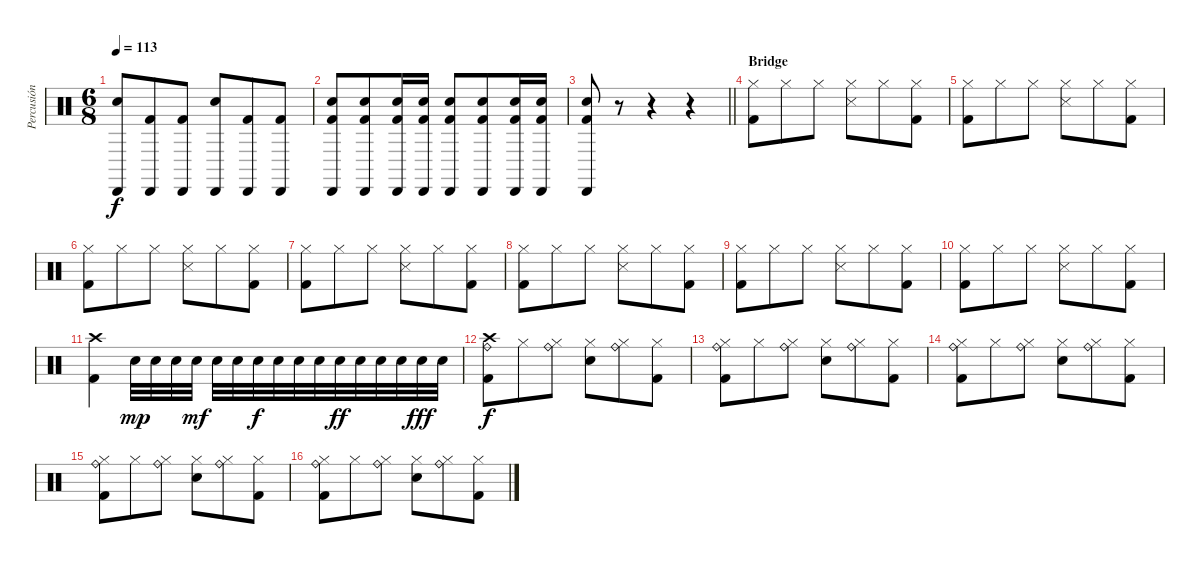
\track ("Percusión" "Percusión") {instrument percussion}
\staff {score}
\articulation defaults
\ts (6 8)
\tempo 113
\clef neutral
\ks c
("Cabasa (hit)" "Electric Snare (hit)").8{dy f} ("Cabasa (hit)" "Kick (hit) 2").8 ("Cabasa (hit)" "Kick (hit) 2").8 ("Cabasa (hit)" "Electric Snare (hit)").8 ("Cabasa (hit)" "Kick (hit) 2").8 ("Cabasa (hit)" "Kick (hit) 2").8 |
("Cabasa (hit)" "Electric Snare (hit)" "Kick (hit) 2").8 ("Cabasa (hit)" "Electric Snare (hit)" "Kick (hit) 2").8 ("Cabasa (hit)" "Electric Snare (hit)" "Kick (hit) 2").16 ("Cabasa (hit)" "Electric Snare (hit)" "Kick (hit) 2").16 ("Cabasa (hit)" "Electric Snare (hit)" "Kick (hit) 2").8 ("Cabasa (hit)" "Electric Snare (hit)" "Kick (hit) 2").8 ("Cabasa (hit)" "Electric Snare (hit)" "Kick (hit) 2").16 ("Cabasa (hit)" "Electric Snare (hit)" "Kick (hit) 2").16 |
\barLineRight lightlight
("Cabasa (hit)" "Electric Snare (hit)" "Kick (hit) 2").8 r.8 r.4 r.4 |
\section ("" "Bridge")
("Hi-Hat (closed)" "Kick (hit) 2").8 "Hi-Hat (closed)".8 "Hi-Hat (closed)".8 ("Hi-Hat (closed)" "Snare (side stick) 3").8 "Hi-Hat (closed)".8 ("Hi-Hat (closed)" "Kick (hit) 2").8 |
("Hi-Hat (closed)" "Kick (hit) 2").8 "Hi-Hat (closed)".8 "Hi-Hat (closed)".8 ("Hi-Hat (closed)" "Snare (side stick) 3").8 "Hi-Hat (closed)".8 ("Hi-Hat (closed)" "Kick (hit) 2").8 |
("Hi-Hat (closed)" "Kick (hit) 2").8 "Hi-Hat (closed)".8 "Hi-Hat (closed)".8 ("Hi-Hat (closed)" "Snare (side stick) 3").8 "Hi-Hat (closed)".8 ("Hi-Hat (closed)" "Kick (hit) 2").8 |
("Hi-Hat (closed)" "Kick (hit) 2").8 "Hi-Hat (closed)".8 "Hi-Hat (closed)".8 ("Hi-Hat (closed)" "Snare (side stick) 3").8 "Hi-Hat (closed)".8 ("Hi-Hat (closed)" "Kick (hit) 2").8 |
("Hi-Hat (closed)" "Kick (hit) 2").8 "Hi-Hat (closed)".8 "Hi-Hat (closed)".8 ("Hi-Hat (closed)" "Snare (side stick) 3").8 "Hi-Hat (closed)".8 ("Hi-Hat (closed)" "Kick (hit) 2").8 |
("Hi-Hat (closed)" "Kick (hit) 2").8 "Hi-Hat (closed)".8 "Hi-Hat (closed)".8 ("Hi-Hat (closed)" "Snare (side stick) 3").8 "Hi-Hat (closed)".8 ("Hi-Hat (closed)" "Kick (hit) 2").8 |
("Hi-Hat (closed)" "Kick (hit) 2").8 "Hi-Hat (closed)".8 "Hi-Hat (closed)".8 ("Hi-Hat (closed)" "Snare (side stick) 3").8 "Hi-Hat (closed)".8 ("Hi-Hat (closed)" "Kick (hit) 2").8 |
("Crash high (hit)" "Kick (hit) 2").4 "Electric Snare (hit)".32{dy mp} "Electric Snare (hit)".32 "Electric Snare (hit)".32 "Electric Snare (hit)".32{dy mf} "Electric Snare (hit)".32 "Electric Snare (hit)".32 "Electric Snare (hit)".32{dy f} "Electric Snare (hit)".32 "Electric Snare (hit)".32 "Electric Snare (hit)".32 "Electric Snare (hit)".32{dy ff} "Electric Snare (hit)".32 "Electric Snare (hit)".32 "Electric Snare (hit)".32 "Electric Snare (hit)".32{dy fff} "Electric Snare (hit)".32 |
("Crash high (hit)" "Ride (bell)" "Kick (hit) 2").8{dy f} "Hi-Hat (closed)".8 ("Ride (bell)" "Hi-Hat (closed)").8 ("Hi-Hat (closed)" "Electric Snare (hit)").8 ("Ride (bell)" "Hi-Hat (closed)").8 ("Hi-Hat (closed)" "Kick (hit) 2").8 |
("Ride (bell)" "Hi-Hat (closed)" "Kick (hit) 2").8 "Hi-Hat (closed)".8 ("Ride (bell)" "Hi-Hat (closed)").8 ("Hi-Hat (closed)" "Electric Snare (hit)").8 ("Ride (bell)" "Hi-Hat (closed)").8 ("Hi-Hat (closed)" "Kick (hit) 2").8 |
("Ride (bell)" "Hi-Hat (closed)" "Kick (hit) 2").8 "Hi-Hat (closed)".8 ("Ride (bell)" "Hi-Hat (closed)").8 ("Hi-Hat (closed)" "Electric Snare (hit)").8 ("Ride (bell)" "Hi-Hat (closed)").8 ("Hi-Hat (closed)" "Kick (hit) 2").8 |
("Ride (bell)" "Hi-Hat (closed)" "Kick (hit) 2").8 "Hi-Hat (closed)".8 ("Ride (bell)" "Hi-Hat (closed)").8 ("Hi-Hat (closed)" "Electric Snare (hit)").8 ("Ride (bell)" "Hi-Hat (closed)").8 ("Hi-Hat (closed)" "Kick (hit) 2").8 |
("Ride (bell)" "Hi-Hat (closed)" "Kick (hit) 2").8 "Hi-Hat (closed)".8 ("Ride (bell)" "Hi-Hat (closed)").8 ("Hi-Hat (closed)" "Electric Snare (hit)").8 ("Ride (bell)" "Hi-Hat (closed)").8 ("Hi-Hat (closed)" "Kick (hit) 2").8
